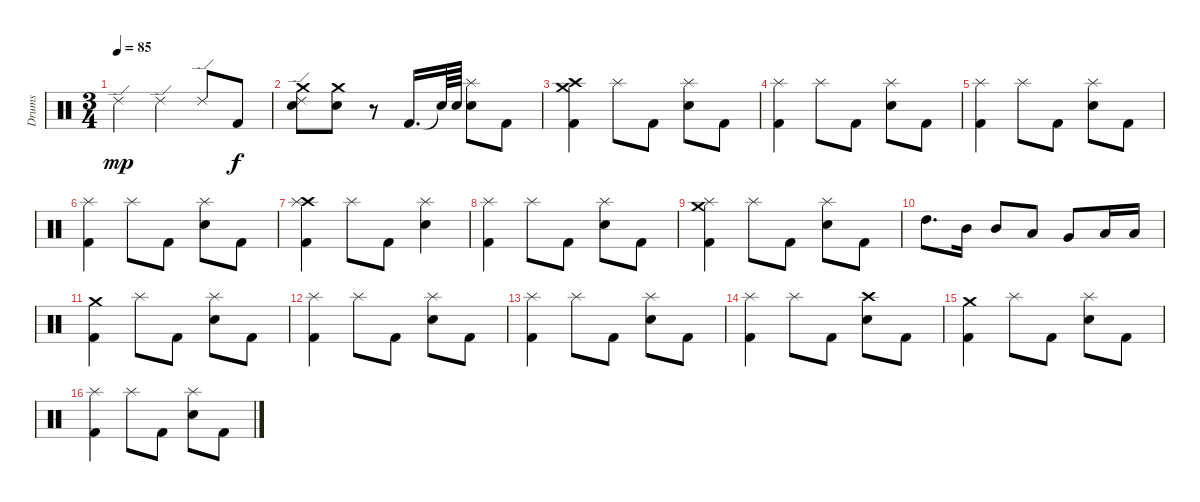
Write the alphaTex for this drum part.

\track ("Drums" "Drums") {instrument percussion}
\staff {score}
\articulation defaults
\ts (3 4)
\tempo 85
\clef neutral
\ks c "Ride (edge) 2".4{dy mp} "Ride (edge) 2".4 "Ride (edge) 2".8 "Kick (hit) 2".8{dy f}
|
("Snare (hit) 2" "Crash medium (hit)" "Ride (edge) 2").8 ("Snare (hit) 2" "Crash medium (hit)").8 r.8 "Kick (hit) 2".16{d} "Snare (hit)"{t}.64 "Snare (hit) 2".64 ("Snare (hit) 2" "Splash (hit)").8 "Kick (hit) 2".8 |
("Kick (hit) 2" "Crash high (hit)" "Crash medium (hit)").4 "Splash (hit)".8 "Kick (hit) 2".8 ("Snare (hit) 2" "Splash (hit)").8 "Kick (hit) 2".8 |
("Kick (hit) 2" "Splash (hit)").4 "Splash (hit)".8 "Kick (hit) 2".8 ("Snare (hit) 2" "Splash (hit)").8 "Kick (hit) 2".8 |
("Kick (hit) 2" "Splash (hit)").4 "Splash (hit)".8 "Kick (hit) 2".8 ("Snare (hit) 2" "Splash (hit)").8 "Kick (hit) 2".8 |
("Kick (hit) 2" "Splash (hit)").4 "Splash (hit)".8 "Kick (hit) 2".8 ("Snare (hit) 2" "Splash (hit)").8 "Kick (hit) 2".8 |
("Kick (hit) 2" "Crash high (hit)" "Splash (hit)").4 "Splash (hit)".8 "Kick (hit) 2".8 ("Snare (hit) 2" "Splash (hit)").4 |
("Kick (hit) 2" "Splash (hit)").4 "Splash (hit)".8 "Kick (hit) 2".8 ("Snare (hit) 2" "Splash (hit)").8 "Kick (hit) 2".8 |
("Kick (hit) 2" "Splash (hit)" "Crash medium (hit)").4 "Splash (hit)".8 "Kick (hit) 2".8 ("Snare (hit) 2" "Splash (hit)").8 "Kick (hit) 2".8 |
"High Tom (hit)".8{d} "Mid Tom (hit)".16 "Mid Tom (hit)".8 "Low Tom (hit)".8 "Very Low Tom (hit)".8 "Low Floor Tom (hit)".16 "Low Floor Tom (hit)".16 |
("Kick (hit) 2" "Crash medium (hit)").4 "Splash (hit)".8 "Kick (hit) 2".8 ("Snare (hit) 2" "Splash (hit)").8 "Kick (hit) 2".8 |
("Kick (hit) 2" "Splash (hit)").4 "Splash (hit)".8 "Kick (hit) 2".8 ("Snare (hit) 2" "Splash (hit)").8 "Kick (hit) 2".8 |
("Kick (hit) 2" "Splash (hit)").4 "Splash (hit)".8 "Kick (hit) 2".8 ("Snare (hit) 2" "Splash (hit)").8 "Kick (hit) 2".8 |
("Kick (hit) 2" "Splash (hit)").4 "Splash (hit)".8 "Kick (hit) 2".8 ("Snare (hit) 2" "Crash high (hit)").8 "Kick (hit) 2".8 |
("Kick (hit) 2" "Crash medium (hit)").4 "Splash (hit)".8 "Kick (hit) 2".8 ("Snare (hit) 2" "Splash (hit)").8 "Kick (hit) 2".8 |
("Kick (hit) 2" "Splash (hit)").4 "Splash (hit)".8 "Kick (hit) 2".8 ("Snare (hit) 2" "Splash (hit)").8 "Kick (hit) 2".8
